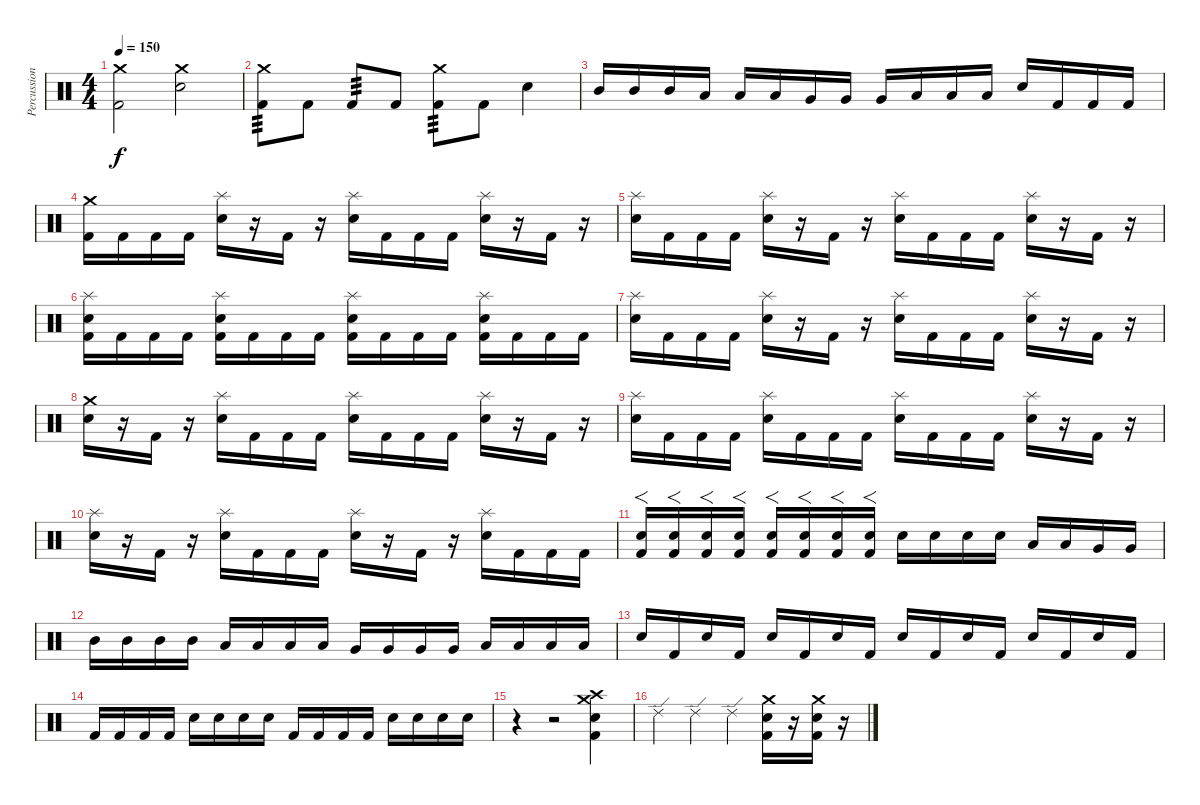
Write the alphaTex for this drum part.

\track ("Percussion" "Percussion") {instrument percussion}
\staff {score}
\articulation defaults
\ts (4 4)
\tempo 150
\clef neutral
\ks c
("Crash medium (hit)" "Kick (hit) 2").2{dy f} ("Crash medium (hit)" "Electric Snare (hit)").2 |
("Crash medium (hit)" "Kick (hit) 2").8{tp 3} "Kick (hit) 2".8 "Kick (hit) 2".8{tp 3} "Kick (hit) 2".8 ("Crash medium (hit)" "Kick (hit) 2").8{tp 3} "Kick (hit) 2".8 "Electric Snare (hit)".4 |
"Mid Tom (hit)".16 "Mid Tom (hit)".16 "Mid Tom (hit)".16 "Low Tom (hit)".16 "Low Tom (hit)".16 "Low Tom (hit)".16 "Very Low Tom (hit)".16 "Very Low Tom (hit)".16 "Very Low Tom (hit)".16 "Low Floor Tom (hit)".16 "Low Floor Tom (hit)".16 "Low Floor Tom (hit)".16 "Electric Snare (hit)".16 "Kick (hit) 2".16 "Kick (hit) 2".16 "Kick (hit) 2".16 |
("Crash medium (hit)" "Kick (hit) 2").16 "Kick (hit) 2".16 "Kick (hit) 2".16 "Kick (hit) 2".16 ("Splash (hit)" "Electric Snare (hit)").16 r.16 "Kick (hit) 2".16 r.16 ("Splash (hit)" "Electric Snare (hit)").16 "Kick (hit) 2".16 "Kick (hit) 2".16 "Kick (hit) 2".16 ("Splash (hit)" "Electric Snare (hit)").16 r.16 "Kick (hit) 2".16 r.16 |
("Splash (hit)" "Electric Snare (hit)").16 "Kick (hit) 2".16 "Kick (hit) 2".16 "Kick (hit) 2".16 ("Splash (hit)" "Electric Snare (hit)").16 r.16 "Kick (hit) 2".16 r.16 ("Splash (hit)" "Electric Snare (hit)").16 "Kick (hit) 2".16 "Kick (hit) 2".16 "Kick (hit) 2".16 ("Splash (hit)" "Electric Snare (hit)").16 r.16 "Kick (hit) 2".16 r.16 |
("Splash (hit)" "Electric Snare (hit)" "Kick (hit) 2").16 "Kick (hit) 2".16 "Kick (hit) 2".16 "Kick (hit) 2".16 ("Splash (hit)" "Electric Snare (hit)" "Kick (hit) 2").16 "Kick (hit) 2".16 "Kick (hit) 2".16 "Kick (hit) 2".16 ("Splash (hit)" "Electric Snare (hit)" "Kick (hit) 2").16 "Kick (hit) 2".16 "Kick (hit) 2".16 "Kick (hit) 2".16 ("Splash (hit)" "Electric Snare (hit)" "Kick (hit) 2").16 "Kick (hit) 2".16 "Kick (hit) 2".16 "Kick (hit) 2".16 |
("Splash (hit)" "Electric Snare (hit)").16 "Kick (hit) 2".16 "Kick (hit) 2".16 "Kick (hit) 2".16 ("Splash (hit)" "Electric Snare (hit)").16 r.16 "Kick (hit) 2".16 r.16 ("Splash (hit)" "Electric Snare (hit)").16 "Kick (hit) 2".16 "Kick (hit) 2".16 "Kick (hit) 2".16 ("Splash (hit)" "Electric Snare (hit)").16 r.16 "Kick (hit) 2".16 r.16 |
("Crash medium (hit)" "Electric Snare (hit)").16 r.16 "Kick (hit) 2".16 r.16 ("Splash (hit)" "Electric Snare (hit)").16 "Kick (hit) 2".16 "Kick (hit) 2".16 "Kick (hit) 2".16 ("Splash (hit)" "Electric Snare (hit)").16 "Kick (hit) 2".16 "Kick (hit) 2".16 "Kick (hit) 2".16 ("Splash (hit)" "Electric Snare (hit)").16 r.16 "Kick (hit) 2".16 r.16 |
("Splash (hit)" "Electric Snare (hit)").16 "Kick (hit) 2".16 "Kick (hit) 2".16 "Kick (hit) 2".16 ("Splash (hit)" "Electric Snare (hit)").16 "Kick (hit) 2".16 "Kick (hit) 2".16 "Kick (hit) 2".16 ("Splash (hit)" "Electric Snare (hit)").16 "Kick (hit) 2".16 "Kick (hit) 2".16 "Kick (hit) 2".16 ("Splash (hit)" "Electric Snare (hit)").16 r.16 "Kick (hit) 2".16 r.16 |
("Splash (hit)" "Electric Snare (hit)").16 r.16 "Kick (hit) 2".16 r.16 ("Splash (hit)" "Electric Snare (hit)").16 "Kick (hit) 2".16 "Kick (hit) 2".16 "Kick (hit) 2".16 ("Splash (hit)" "Electric Snare (hit)").16 r.16 "Kick (hit) 2".16 r.16 ("Splash (hit)" "Electric Snare (hit)").16 "Kick (hit) 2".16 "Kick (hit) 2".16 "Kick (hit) 2".16 |
("Electric Snare (hit)" "Kick (hit) 2").16{f} ("Electric Snare (hit)" "Kick (hit) 2").16{f} ("Electric Snare (hit)" "Kick (hit) 2").16{f} ("Electric Snare (hit)" "Kick (hit) 2").16{f} ("Electric Snare (hit)" "Kick (hit) 2").16{f} ("Electric Snare (hit)" "Kick (hit) 2").16{f} ("Electric Snare (hit)" "Kick (hit) 2").16{f} ("Electric Snare (hit)" "Kick (hit) 2").16{f} "Electric Snare (hit)".16 "Electric Snare (hit)".16 "Electric Snare (hit)".16 "Electric Snare (hit)".16 "Low Tom (hit)".16 "Low Tom (hit)".16 "Very Low Tom (hit)".16 "Very Low Tom (hit)".16 |
"Mid Tom (hit)".16 "Mid Tom (hit)".16 "Mid Tom (hit)".16 "Mid Tom (hit)".16 "Low Tom (hit)".16 "Low Tom (hit)".16 "Low Tom (hit)".16 "Low Tom (hit)".16 "Very Low Tom (hit)".16 "Very Low Tom (hit)".16 "Very Low Tom (hit)".16 "Very Low Tom (hit)".16 "Low Floor Tom (hit)".16 "Low Floor Tom (hit)".16 "Low Floor Tom (hit)".16 "Low Floor Tom (hit)".16 |
"Electric Snare (hit)".16 "Kick (hit) 2".16 "Electric Snare (hit)".16 "Kick (hit) 2".16 "Electric Snare (hit)".16 "Kick (hit) 2".16 "Electric Snare (hit)".16 "Kick (hit) 2".16 "Electric Snare (hit)".16 "Kick (hit) 2".16 "Electric Snare (hit)".16 "Kick (hit) 2".16 "Electric Snare (hit)".16 "Kick (hit) 2".16 "Electric Snare (hit)".16 "Kick (hit) 2".16 |
"Kick (hit) 2".16 "Kick (hit) 2".16 "Kick (hit) 2".16 "Kick (hit) 2".16 "Electric Snare (hit)".16 "Electric Snare (hit)".16 "Electric Snare (hit)".16 "Electric Snare (hit)".16 "Kick (hit) 2".16 "Kick (hit) 2".16 "Kick (hit) 2".16 "Kick (hit) 2".16 "Electric Snare (hit)".16 "Electric Snare (hit)".16 "Electric Snare (hit)".16 "Electric Snare (hit)".16 |
r.4 r.2 ("Electric Snare (hit)" "Crash medium (hit)" "Crash high (hit)" "Kick (hit) 2").4 |
"Ride (edge) 2".4 "Ride (edge) 2".4 "Ride (edge) 2".4 ("Crash medium (hit)" "Electric Snare (hit)" "Kick (hit) 2").16 r.16 ("Crash medium (hit)" "Electric Snare (hit)" "Kick (hit) 2").16 r.16
